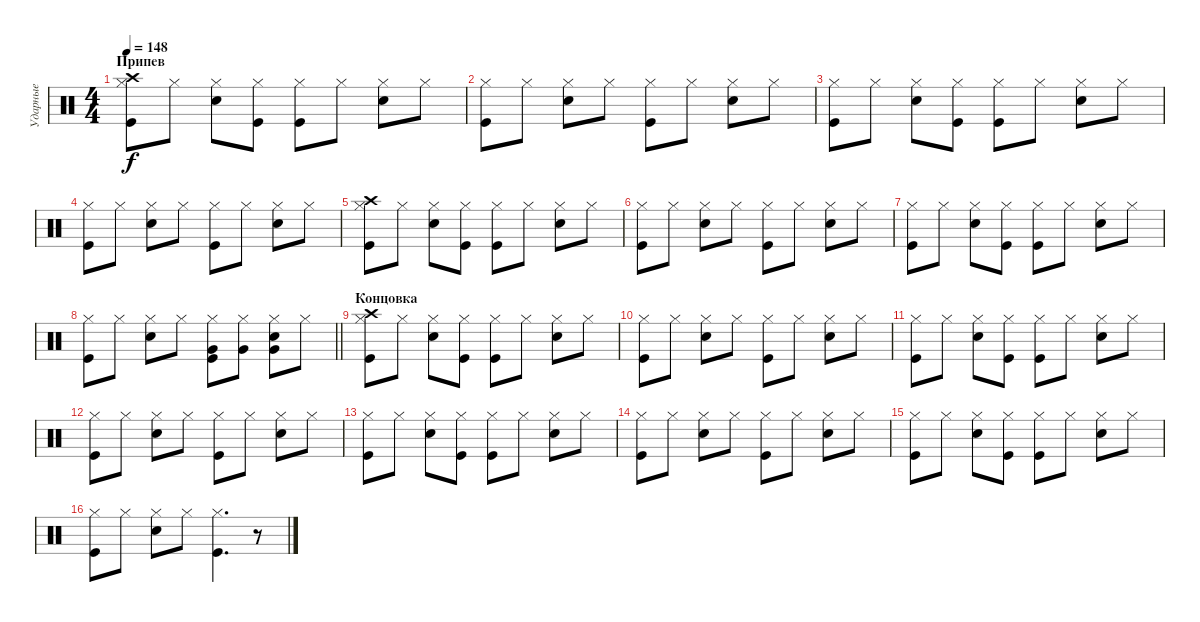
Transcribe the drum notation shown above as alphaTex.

\track ("Ударные" "Ударные") {instrument percussion}
\staff {score}
\articulation defaults
\ts (4 4)
\section ("" "Припев")
\tempo 148
\clef neutral
\ks c
("Kick (hit)" "Hi-Hat (closed)" "Crash high (hit)").8{dy f} "Hi-Hat (closed)".8 ("Snare (hit) 2" "Hi-Hat (closed)").8 ("Kick (hit)" "Hi-Hat (closed)").8 ("Kick (hit)" "Hi-Hat (closed)").8 "Hi-Hat (closed)".8 ("Snare (hit) 2" "Hi-Hat (closed)").8 "Hi-Hat (closed)".8 |
("Kick (hit)" "Hi-Hat (closed)").8 "Hi-Hat (closed)".8 ("Snare (hit) 2" "Hi-Hat (closed)").8 "Hi-Hat (closed)".8 ("Kick (hit)" "Hi-Hat (closed)").8 "Hi-Hat (closed)".8 ("Snare (hit) 2" "Hi-Hat (closed)").8 "Hi-Hat (closed)".8 |
("Kick (hit)" "Hi-Hat (closed)").8 "Hi-Hat (closed)".8 ("Snare (hit) 2" "Hi-Hat (closed)").8 ("Kick (hit)" "Hi-Hat (closed)").8 ("Kick (hit)" "Hi-Hat (closed)").8 "Hi-Hat (closed)".8 ("Snare (hit) 2" "Hi-Hat (closed)").8 "Hi-Hat (closed)".8 |
("Kick (hit)" "Hi-Hat (closed)").8 "Hi-Hat (closed)".8 ("Snare (hit) 2" "Hi-Hat (closed)").8 "Hi-Hat (closed)".8 ("Kick (hit)" "Hi-Hat (closed)").8 "Hi-Hat (closed)".8 ("Snare (hit) 2" "Hi-Hat (closed)").8 "Hi-Hat (closed)".8 |
("Kick (hit)" "Hi-Hat (closed)" "Crash high (hit)").8 "Hi-Hat (closed)".8 ("Snare (hit) 2" "Hi-Hat (closed)").8 ("Kick (hit)" "Hi-Hat (closed)").8 ("Kick (hit)" "Hi-Hat (closed)").8 "Hi-Hat (closed)".8 ("Snare (hit) 2" "Hi-Hat (closed)").8 "Hi-Hat (closed)".8 |
("Kick (hit)" "Hi-Hat (closed)").8 "Hi-Hat (closed)".8 ("Snare (hit) 2" "Hi-Hat (closed)").8 "Hi-Hat (closed)".8 ("Kick (hit)" "Hi-Hat (closed)").8 "Hi-Hat (closed)".8 ("Snare (hit) 2" "Hi-Hat (closed)").8 "Hi-Hat (closed)".8 |
("Kick (hit)" "Hi-Hat (closed)").8 "Hi-Hat (closed)".8 ("Snare (hit) 2" "Hi-Hat (closed)").8 ("Kick (hit)" "Hi-Hat (closed)").8 ("Kick (hit)" "Hi-Hat (closed)").8 "Hi-Hat (closed)".8 ("Snare (hit) 2" "Hi-Hat (closed)").8 "Hi-Hat (closed)".8 |
\barLineRight lightlight
("Kick (hit)" "Hi-Hat (closed)").8 "Hi-Hat (closed)".8 ("Snare (hit) 2" "Hi-Hat (closed)").8 "Hi-Hat (closed)".8 ("Kick (hit)" "Hi-Hat (closed)" "Very Low Tom (hit)").8 ("Hi-Hat (closed)" "Very Low Tom (hit)").8 ("Snare (hit) 2" "Hi-Hat (closed)" "Very Low Tom (hit)").8 "Hi-Hat (closed)".8 |
\section ("" "Концовка")
("Kick (hit)" "Hi-Hat (closed)" "Crash high (hit)").8 "Hi-Hat (closed)".8 ("Snare (hit) 2" "Hi-Hat (closed)").8 ("Kick (hit)" "Hi-Hat (closed)").8 ("Kick (hit)" "Hi-Hat (closed)").8 "Hi-Hat (closed)".8 ("Snare (hit) 2" "Hi-Hat (closed)").8 "Hi-Hat (closed)".8 |
("Kick (hit)" "Hi-Hat (closed)").8 "Hi-Hat (closed)".8 ("Snare (hit) 2" "Hi-Hat (closed)").8 "Hi-Hat (closed)".8 ("Kick (hit)" "Hi-Hat (closed)").8 "Hi-Hat (closed)".8 ("Snare (hit) 2" "Hi-Hat (closed)").8 "Hi-Hat (closed)".8 |
("Kick (hit)" "Hi-Hat (closed)").8 "Hi-Hat (closed)".8 ("Snare (hit) 2" "Hi-Hat (closed)").8 ("Kick (hit)" "Hi-Hat (closed)").8 ("Kick (hit)" "Hi-Hat (closed)").8 "Hi-Hat (closed)".8 ("Snare (hit) 2" "Hi-Hat (closed)").8 "Hi-Hat (closed)".8 |
("Kick (hit)" "Hi-Hat (closed)").8 "Hi-Hat (closed)".8 ("Snare (hit) 2" "Hi-Hat (closed)").8 "Hi-Hat (closed)".8 ("Kick (hit)" "Hi-Hat (closed)").8 "Hi-Hat (closed)".8 ("Snare (hit) 2" "Hi-Hat (closed)").8 "Hi-Hat (closed)".8 |
("Kick (hit)" "Hi-Hat (closed)").8 "Hi-Hat (closed)".8 ("Snare (hit) 2" "Hi-Hat (closed)").8 ("Kick (hit)" "Hi-Hat (closed)").8 ("Kick (hit)" "Hi-Hat (closed)").8 "Hi-Hat (closed)".8 ("Snare (hit) 2" "Hi-Hat (closed)").8 "Hi-Hat (closed)".8 |
("Kick (hit)" "Hi-Hat (closed)").8 "Hi-Hat (closed)".8 ("Snare (hit) 2" "Hi-Hat (closed)").8 "Hi-Hat (closed)".8 ("Kick (hit)" "Hi-Hat (closed)").8 "Hi-Hat (closed)".8 ("Snare (hit) 2" "Hi-Hat (closed)").8 "Hi-Hat (closed)".8 |
("Kick (hit)" "Hi-Hat (closed)").8 "Hi-Hat (closed)".8 ("Snare (hit) 2" "Hi-Hat (closed)").8 ("Kick (hit)" "Hi-Hat (closed)").8 ("Kick (hit)" "Hi-Hat (closed)").8 "Hi-Hat (closed)".8 ("Snare (hit) 2" "Hi-Hat (closed)").8 "Hi-Hat (closed)".8 |
("Kick (hit)" "Hi-Hat (closed)").8 "Hi-Hat (closed)".8 ("Snare (hit) 2" "Hi-Hat (closed)").8 "Hi-Hat (closed)".8 ("Kick (hit)" "Hi-Hat (closed)").4{d} r.8
